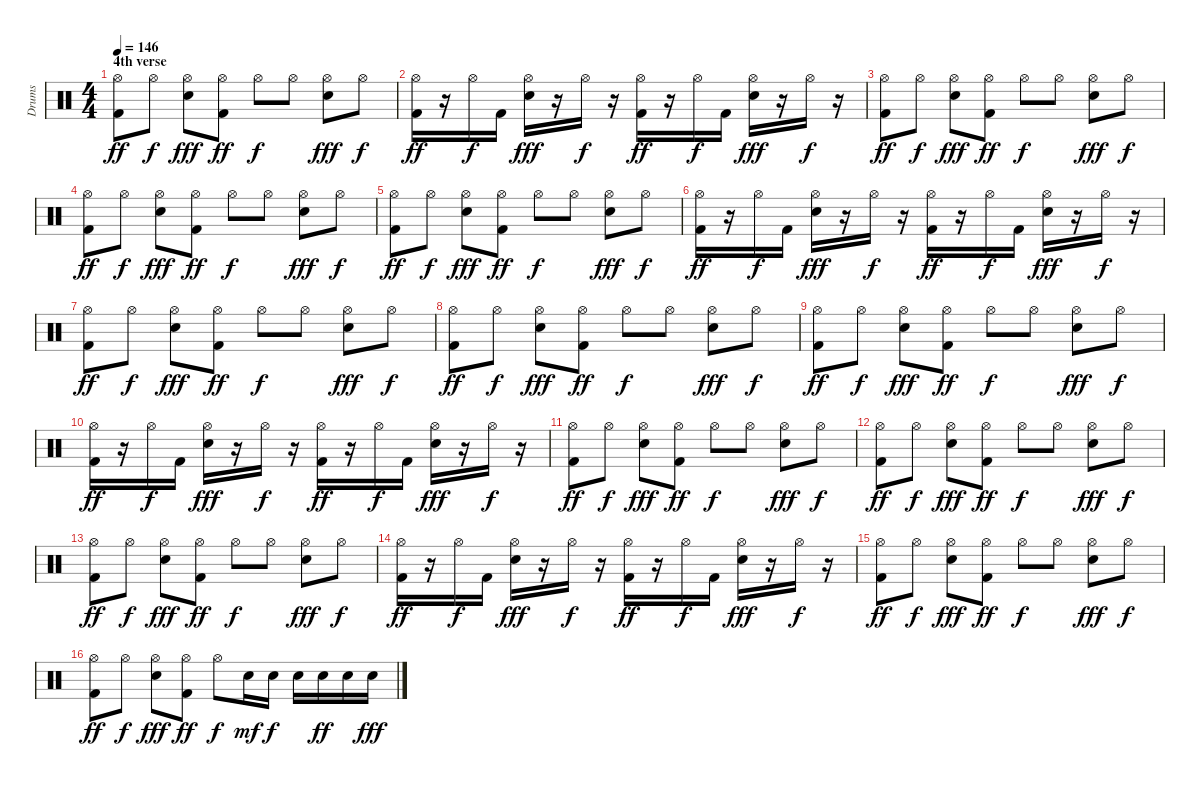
\track ("Drums" "Drums") {instrument percussion}
\staff {score}
\articulation defaults
\ts (4 4)
\section ("" "4th verse")
\tempo 146
\clef neutral
\ks c
("Kick (hit) 2" "Hi-Hat (open)").8{dy ff} "Hi-Hat (open)".8{dy f} ("Snare (hit) 2" "Hi-Hat (open)").8{dy fff} ("Kick (hit) 2" "Hi-Hat (open)").8{dy ff} "Hi-Hat (open)".8{dy f} "Hi-Hat (open)".8 ("Snare (hit) 2" "Hi-Hat (open)").8{dy fff} "Hi-Hat (open)".8{dy f} |
("Kick (hit) 2" "Hi-Hat (open)").16{dy ff} r.16 "Hi-Hat (open)".16{dy f} "Kick (hit) 2".16 ("Snare (hit) 2" "Hi-Hat (open)").16{dy fff} r.16 "Hi-Hat (open)".16{dy f} r.16 ("Kick (hit) 2" "Hi-Hat (open)").16{dy ff} r.16 "Hi-Hat (open)".16{dy f} "Kick (hit) 2".16 ("Snare (hit) 2" "Hi-Hat (open)").16{dy fff} r.16 "Hi-Hat (open)".16{dy f} r.16 |
("Kick (hit) 2" "Hi-Hat (open)").8{dy ff} "Hi-Hat (open)".8{dy f} ("Snare (hit) 2" "Hi-Hat (open)").8{dy fff} ("Kick (hit) 2" "Hi-Hat (open)").8{dy ff} "Hi-Hat (open)".8{dy f} "Hi-Hat (open)".8 ("Snare (hit) 2" "Hi-Hat (open)").8{dy fff} "Hi-Hat (open)".8{dy f} |
("Kick (hit) 2" "Hi-Hat (open)").8{dy ff} "Hi-Hat (open)".8{dy f} ("Snare (hit) 2" "Hi-Hat (open)").8{dy fff} ("Kick (hit) 2" "Hi-Hat (open)").8{dy ff} "Hi-Hat (open)".8{dy f} "Hi-Hat (open)".8 ("Snare (hit) 2" "Hi-Hat (open)").8{dy fff} "Hi-Hat (open)".8{dy f} |
("Kick (hit) 2" "Hi-Hat (open)").8{dy ff} "Hi-Hat (open)".8{dy f} ("Snare (hit) 2" "Hi-Hat (open)").8{dy fff} ("Kick (hit) 2" "Hi-Hat (open)").8{dy ff} "Hi-Hat (open)".8{dy f} "Hi-Hat (open)".8 ("Snare (hit) 2" "Hi-Hat (open)").8{dy fff} "Hi-Hat (open)".8{dy f} |
("Kick (hit) 2" "Hi-Hat (open)").16{dy ff} r.16 "Hi-Hat (open)".16{dy f} "Kick (hit) 2".16 ("Snare (hit) 2" "Hi-Hat (open)").16{dy fff} r.16 "Hi-Hat (open)".16{dy f} r.16 ("Kick (hit) 2" "Hi-Hat (open)").16{dy ff} r.16 "Hi-Hat (open)".16{dy f} "Kick (hit) 2".16 ("Snare (hit) 2" "Hi-Hat (open)").16{dy fff} r.16 "Hi-Hat (open)".16{dy f} r.16 |
("Kick (hit) 2" "Hi-Hat (open)").8{dy ff} "Hi-Hat (open)".8{dy f} ("Snare (hit) 2" "Hi-Hat (open)").8{dy fff} ("Kick (hit) 2" "Hi-Hat (open)").8{dy ff} "Hi-Hat (open)".8{dy f} "Hi-Hat (open)".8 ("Snare (hit) 2" "Hi-Hat (open)").8{dy fff} "Hi-Hat (open)".8{dy f} |
("Kick (hit) 2" "Hi-Hat (open)").8{dy ff} "Hi-Hat (open)".8{dy f} ("Snare (hit) 2" "Hi-Hat (open)").8{dy fff} ("Kick (hit) 2" "Hi-Hat (open)").8{dy ff} "Hi-Hat (open)".8{dy f} "Hi-Hat (open)".8 ("Snare (hit) 2" "Hi-Hat (open)").8{dy fff} "Hi-Hat (open)".8{dy f} |
("Kick (hit) 2" "Hi-Hat (open)").8{dy ff} "Hi-Hat (open)".8{dy f} ("Snare (hit) 2" "Hi-Hat (open)").8{dy fff} ("Kick (hit) 2" "Hi-Hat (open)").8{dy ff} "Hi-Hat (open)".8{dy f} "Hi-Hat (open)".8 ("Snare (hit) 2" "Hi-Hat (open)").8{dy fff} "Hi-Hat (open)".8{dy f} |
("Kick (hit) 2" "Hi-Hat (open)").16{dy ff} r.16 "Hi-Hat (open)".16{dy f} "Kick (hit) 2".16 ("Snare (hit) 2" "Hi-Hat (open)").16{dy fff} r.16 "Hi-Hat (open)".16{dy f} r.16 ("Kick (hit) 2" "Hi-Hat (open)").16{dy ff} r.16 "Hi-Hat (open)".16{dy f} "Kick (hit) 2".16 ("Snare (hit) 2" "Hi-Hat (open)").16{dy fff} r.16 "Hi-Hat (open)".16{dy f} r.16 |
("Kick (hit) 2" "Hi-Hat (open)").8{dy ff} "Hi-Hat (open)".8{dy f} ("Snare (hit) 2" "Hi-Hat (open)").8{dy fff} ("Kick (hit) 2" "Hi-Hat (open)").8{dy ff} "Hi-Hat (open)".8{dy f} "Hi-Hat (open)".8 ("Snare (hit) 2" "Hi-Hat (open)").8{dy fff} "Hi-Hat (open)".8{dy f} |
("Kick (hit) 2" "Hi-Hat (open)").8{dy ff} "Hi-Hat (open)".8{dy f} ("Snare (hit) 2" "Hi-Hat (open)").8{dy fff} ("Kick (hit) 2" "Hi-Hat (open)").8{dy ff} "Hi-Hat (open)".8{dy f} "Hi-Hat (open)".8 ("Snare (hit) 2" "Hi-Hat (open)").8{dy fff} "Hi-Hat (open)".8{dy f} |
("Kick (hit) 2" "Hi-Hat (open)").8{dy ff} "Hi-Hat (open)".8{dy f} ("Snare (hit) 2" "Hi-Hat (open)").8{dy fff} ("Kick (hit) 2" "Hi-Hat (open)").8{dy ff} "Hi-Hat (open)".8{dy f} "Hi-Hat (open)".8 ("Snare (hit) 2" "Hi-Hat (open)").8{dy fff} "Hi-Hat (open)".8{dy f} |
("Kick (hit) 2" "Hi-Hat (open)").16{dy ff} r.16 "Hi-Hat (open)".16{dy f} "Kick (hit) 2".16 ("Snare (hit) 2" "Hi-Hat (open)").16{dy fff} r.16 "Hi-Hat (open)".16{dy f} r.16 ("Kick (hit) 2" "Hi-Hat (open)").16{dy ff} r.16 "Hi-Hat (open)".16{dy f} "Kick (hit) 2".16 ("Snare (hit) 2" "Hi-Hat (open)").16{dy fff} r.16 "Hi-Hat (open)".16{dy f} r.16 |
("Kick (hit) 2" "Hi-Hat (open)").8{dy ff} "Hi-Hat (open)".8{dy f} ("Snare (hit) 2" "Hi-Hat (open)").8{dy fff} ("Kick (hit) 2" "Hi-Hat (open)").8{dy ff} "Hi-Hat (open)".8{dy f} "Hi-Hat (open)".8 ("Snare (hit) 2" "Hi-Hat (open)").8{dy fff} "Hi-Hat (open)".8{dy f} |
("Kick (hit) 2" "Hi-Hat (open)").8{dy ff} "Hi-Hat (open)".8{dy f} ("Snare (hit) 2" "Hi-Hat (open)").8{dy fff} ("Kick (hit) 2" "Hi-Hat (open)").8{dy ff} "Hi-Hat (open)".8{dy f} "Snare (hit) 2".16{dy mf} "Snare (hit) 2".16{dy f} "Snare (hit) 2".16 "Snare (hit) 2".16{dy ff} "Snare (hit) 2".16 "Snare (hit) 2".16{dy fff}
